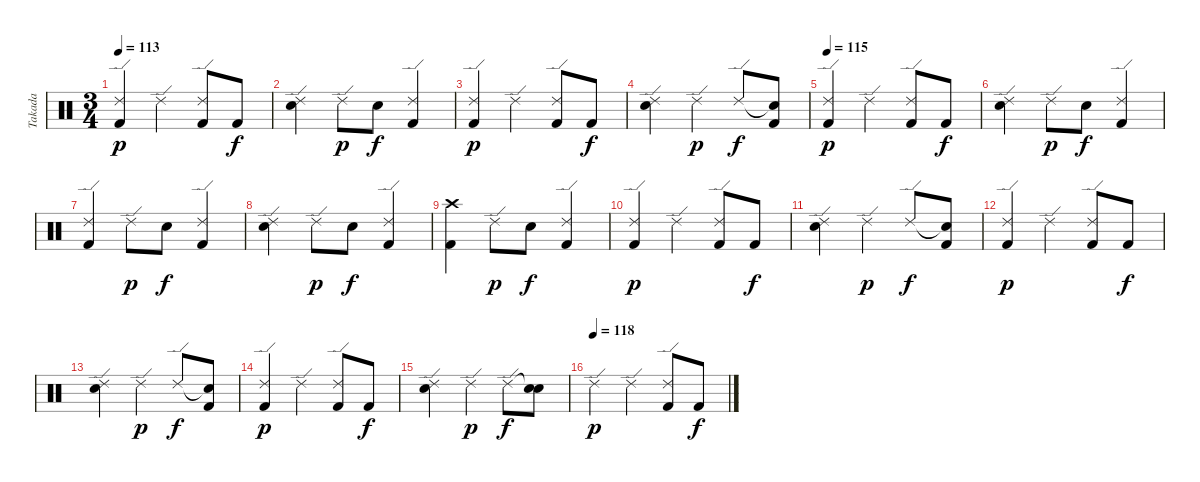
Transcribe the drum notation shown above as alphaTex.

\track ("Takada" "Takada") {instrument percussion}
\staff {score}
\articulation defaults
\ts (3 4)
\tempo 113
\clef neutral
\ks c
("Ride (edge) 2" "Kick (hit) 2").4{dy p} "Ride (edge) 2".4 ("Ride (edge) 2" "Kick (hit) 2").8 "Kick (hit) 2".8{dy f} |
("Ride (edge) 2" "Electric Snare (hit)").4 "Ride (edge) 2".8{dy p} "Electric Snare (hit)".8{dy f} ("Ride (edge) 2" "Kick (hit) 2").4 |
("Ride (edge) 2" "Kick (hit) 2").4{dy p} "Ride (edge) 2".4 ("Ride (edge) 2" "Kick (hit) 2").8 "Kick (hit) 2".8{dy f} |
("Ride (edge) 2" "Electric Snare (hit)").4 "Ride (edge) 2".4{dy p} "Ride (edge) 2".8{dy f} ("Snare (hit)"{t} "Kick (hit) 2").8 |
\tempo 115
("Ride (edge) 2" "Kick (hit) 2").4{dy p} "Ride (edge) 2".4 ("Ride (edge) 2" "Kick (hit) 2").8 "Kick (hit) 2".8{dy f} |
("Ride (edge) 2" "Electric Snare (hit)").4 "Ride (edge) 2".8{dy p} "Electric Snare (hit)".8{dy f} ("Ride (edge) 2" "Kick (hit) 2").4 |
("Ride (edge) 2" "Kick (hit) 2").4 "Ride (edge) 2".8{dy p} "Electric Snare (hit)".8{dy f} ("Ride (edge) 2" "Kick (hit) 2").4 |
("Ride (edge) 2" "Electric Snare (hit)").4 "Ride (edge) 2".8{dy p} "Electric Snare (hit)".8{dy f} ("Ride (edge) 2" "Kick (hit) 2").4 |
("Crash high (hit)" "Kick (hit) 2").4 "Ride (edge) 2".8{dy p} "Electric Snare (hit)".8{dy f} ("Ride (edge) 2" "Kick (hit) 2").4 |
("Ride (edge) 2" "Kick (hit) 2").4{dy p} "Ride (edge) 2".4 ("Ride (edge) 2" "Kick (hit) 2").8 "Kick (hit) 2".8{dy f} |
("Ride (edge) 2" "Electric Snare (hit)").4 "Ride (edge) 2".4{dy p} "Ride (edge) 2".8{dy f} ("Snare (hit)"{t} "Kick (hit) 2").8 |
("Ride (edge) 2" "Kick (hit) 2").4{dy p} "Ride (edge) 2".4 ("Ride (edge) 2" "Kick (hit) 2").8 "Kick (hit) 2".8{dy f} |
("Ride (edge) 2" "Electric Snare (hit)").4 "Ride (edge) 2".4{dy p} "Ride (edge) 2".8{dy f} ("Snare (hit)"{t} "Kick (hit) 2").8 |
("Ride (edge) 2" "Kick (hit) 2").4{dy p} "Ride (edge) 2".4 ("Ride (edge) 2" "Kick (hit) 2").8 "Kick (hit) 2".8{dy f} |
("Ride (edge) 2" "Electric Snare (hit)").4 "Ride (edge) 2".4{dy p} "Ride (edge) 2".8{dy f} ("Snare (hit)"{t} "Electric Snare (hit)").8 |
\tempo (118)
"Ride (edge) 2".4{dy p} "Ride (edge) 2".4 ("Ride (edge) 2" "Kick (hit) 2").8 "Kick (hit) 2".8{dy f}
